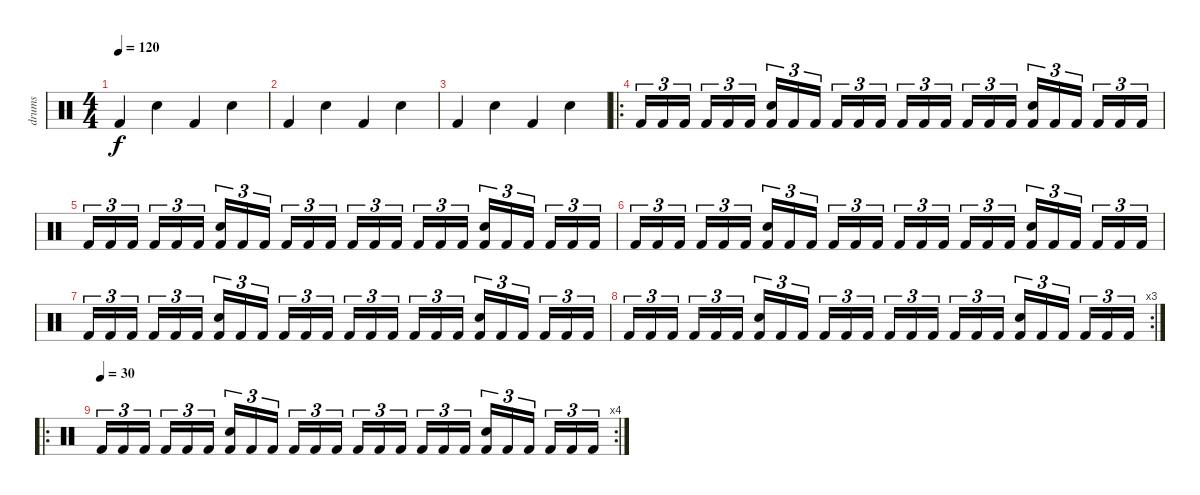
\track ("drums" "drums") {instrument percussion}
\staff {score}
\articulation defaults
\ts (4 4)
\tempo 120
\clef neutral
\ks c "Kick (hit) 2".4{dy f} "Snare (hit) 2".4 "Kick (hit) 2".4 "Snare (hit) 2".4
|
"Kick (hit) 2".4 "Snare (hit) 2".4 "Kick (hit) 2".4 "Snare (hit) 2".4 |
"Kick (hit) 2".4 "Snare (hit) 2".4 "Kick (hit) 2".4 "Snare (hit) 2".4 |
\ro "Kick (hit) 2".16{tu (3 2)} "Kick (hit) 2".16{tu (3 2)} "Kick (hit) 2".16{tu (3 2)} "Kick (hit) 2".16{tu (3 2)} "Kick (hit) 2".16{tu (3 2)} "Kick (hit) 2".16{tu (3 2)}
("Snare (hit) 2" "Kick (hit) 2").16{tu (3 2)} "Kick (hit) 2".16{tu (3 2)} "Kick (hit) 2".16{tu (3 2)} "Kick (hit) 2".16{tu (3 2)} "Kick (hit) 2".16{tu (3 2)} "Kick (hit) 2".16{tu (3 2)} "Kick (hit) 2".16{tu (3 2)} "Kick (hit) 2".16{tu (3 2)} "Kick (hit) 2".16{tu (3 2)} "Kick (hit) 2".16{tu (3 2)} "Kick (hit) 2".16{tu (3 2)} "Kick (hit) 2".16{tu (3 2)} ("Snare (hit) 2" "Kick (hit) 2").16{tu (3 2)} "Kick (hit) 2".16{tu (3 2)} "Kick (hit) 2".16{tu (3 2)} "Kick (hit) 2".16{tu (3 2)} "Kick (hit) 2".16{tu (3 2)} "Kick (hit) 2".16{tu (3 2)} |
"Kick (hit) 2".16{tu (3 2)} "Kick (hit) 2".16{tu (3 2)} "Kick (hit) 2".16{tu (3 2)} "Kick (hit) 2".16{tu (3 2)} "Kick (hit) 2".16{tu (3 2)} "Kick (hit) 2".16{tu (3 2)} ("Snare (hit) 2" "Kick (hit) 2").16{tu (3 2)} "Kick (hit) 2".16{tu (3 2)} "Kick (hit) 2".16{tu (3 2)} "Kick (hit) 2".16{tu (3 2)} "Kick (hit) 2".16{tu (3 2)} "Kick (hit) 2".16{tu (3 2)} "Kick (hit) 2".16{tu (3 2)} "Kick (hit) 2".16{tu (3 2)} "Kick (hit) 2".16{tu (3 2)} "Kick (hit) 2".16{tu (3 2)} "Kick (hit) 2".16{tu (3 2)} "Kick (hit) 2".16{tu (3 2)} ("Snare (hit) 2" "Kick (hit) 2").16{tu (3 2)} "Kick (hit) 2".16{tu (3 2)} "Kick (hit) 2".16{tu (3 2)} "Kick (hit) 2".16{tu (3 2)} "Kick (hit) 2".16{tu (3 2)} "Kick (hit) 2".16{tu (3 2)} |
"Kick (hit) 2".16{tu (3 2)} "Kick (hit) 2".16{tu (3 2)} "Kick (hit) 2".16{tu (3 2)} "Kick (hit) 2".16{tu (3 2)} "Kick (hit) 2".16{tu (3 2)} "Kick (hit) 2".16{tu (3 2)} ("Snare (hit) 2" "Kick (hit) 2").16{tu (3 2)} "Kick (hit) 2".16{tu (3 2)} "Kick (hit) 2".16{tu (3 2)} "Kick (hit) 2".16{tu (3 2)} "Kick (hit) 2".16{tu (3 2)} "Kick (hit) 2".16{tu (3 2)} "Kick (hit) 2".16{tu (3 2)} "Kick (hit) 2".16{tu (3 2)} "Kick (hit) 2".16{tu (3 2)} "Kick (hit) 2".16{tu (3 2)} "Kick (hit) 2".16{tu (3 2)} "Kick (hit) 2".16{tu (3 2)} ("Snare (hit) 2" "Kick (hit) 2").16{tu (3 2)} "Kick (hit) 2".16{tu (3 2)} "Kick (hit) 2".16{tu (3 2)} "Kick (hit) 2".16{tu (3 2)} "Kick (hit) 2".16{tu (3 2)} "Kick (hit) 2".16{tu (3 2)} |
"Kick (hit) 2".16{tu (3 2)} "Kick (hit) 2".16{tu (3 2)} "Kick (hit) 2".16{tu (3 2)} "Kick (hit) 2".16{tu (3 2)} "Kick (hit) 2".16{tu (3 2)} "Kick (hit) 2".16{tu (3 2)} ("Snare (hit) 2" "Kick (hit) 2").16{tu (3 2)} "Kick (hit) 2".16{tu (3 2)} "Kick (hit) 2".16{tu (3 2)} "Kick (hit) 2".16{tu (3 2)} "Kick (hit) 2".16{tu (3 2)} "Kick (hit) 2".16{tu (3 2)} "Kick (hit) 2".16{tu (3 2)} "Kick (hit) 2".16{tu (3 2)} "Kick (hit) 2".16{tu (3 2)} "Kick (hit) 2".16{tu (3 2)} "Kick (hit) 2".16{tu (3 2)} "Kick (hit) 2".16{tu (3 2)} ("Snare (hit) 2" "Kick (hit) 2").16{tu (3 2)} "Kick (hit) 2".16{tu (3 2)} "Kick (hit) 2".16{tu (3 2)} "Kick (hit) 2".16{tu (3 2)} "Kick (hit) 2".16{tu (3 2)} "Kick (hit) 2".16{tu (3 2)} |
\rc 3 "Kick (hit) 2".16{tu (3 2)} "Kick (hit) 2".16{tu (3 2)} "Kick (hit) 2".16{tu (3 2)} "Kick (hit) 2".16{tu (3 2)} "Kick (hit) 2".16{tu (3 2)} "Kick (hit) 2".16{tu (3 2)}
("Snare (hit) 2" "Kick (hit) 2").16{tu (3 2)} "Kick (hit) 2".16{tu (3 2)} "Kick (hit) 2".16{tu (3 2)} "Kick (hit) 2".16{tu (3 2)} "Kick (hit) 2".16{tu (3 2)} "Kick (hit) 2".16{tu (3 2)} "Kick (hit) 2".16{tu (3 2)} "Kick (hit) 2".16{tu (3 2)} "Kick (hit) 2".16{tu (3 2)} "Kick (hit) 2".16{tu (3 2)} "Kick (hit) 2".16{tu (3 2)} "Kick (hit) 2".16{tu (3 2)} ("Snare (hit) 2" "Kick (hit) 2").16{tu (3 2)} "Kick (hit) 2".16{tu (3 2)} "Kick (hit) 2".16{tu (3 2)} "Kick (hit) 2".16{tu (3 2)} "Kick (hit) 2".16{tu (3 2)} "Kick (hit) 2".16{tu (3 2)} |
\ro
\rc 4
\tempo (30)
"Kick (hit) 2".16{tu (3 2)} "Kick (hit) 2".16{tu (3 2)} "Kick (hit) 2".16{tu (3 2)} "Kick (hit) 2".16{tu (3 2)} "Kick (hit) 2".16{tu (3 2)} "Kick (hit) 2".16{tu (3 2)} ("Snare (hit) 2" "Kick (hit) 2").16{tu (3 2)} "Kick (hit) 2".16{tu (3 2)} "Kick (hit) 2".16{tu (3 2)} "Kick (hit) 2".16{tu (3 2)} "Kick (hit) 2".16{tu (3 2)} "Kick (hit) 2".16{tu (3 2)} "Kick (hit) 2".16{tu (3 2)} "Kick (hit) 2".16{tu (3 2)} "Kick (hit) 2".16{tu (3 2)} "Kick (hit) 2".16{tu (3 2)} "Kick (hit) 2".16{tu (3 2)} "Kick (hit) 2".16{tu (3 2)} ("Snare (hit) 2" "Kick (hit) 2").16{tu (3 2)} "Kick (hit) 2".16{tu (3 2)} "Kick (hit) 2".16{tu (3 2)} "Kick (hit) 2".16{tu (3 2)} "Kick (hit) 2".16{tu (3 2)} "Kick (hit) 2".16{tu (3 2)}
